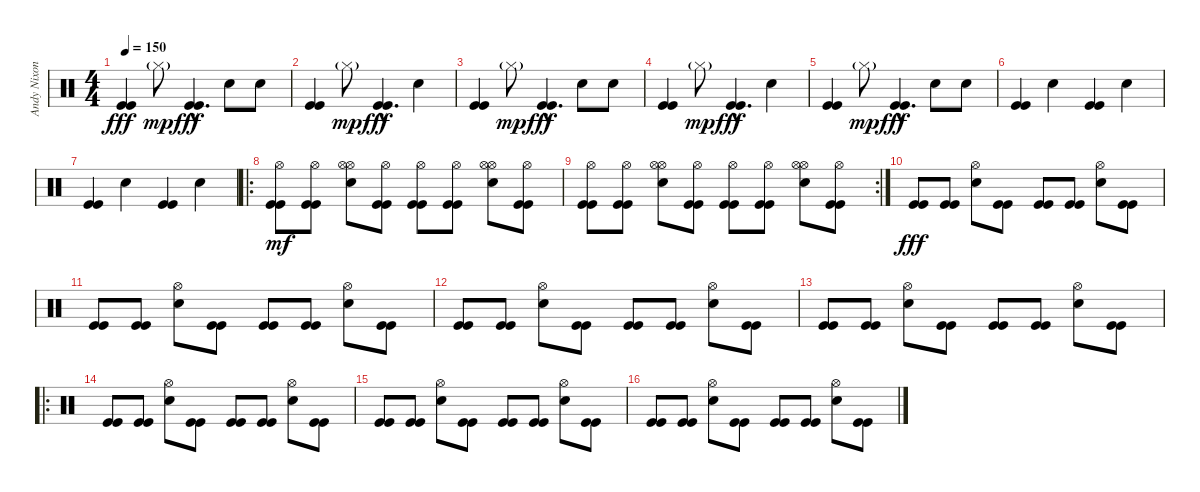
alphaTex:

\track ("Andy Nixon (drums)" "Andy Nixon") {instrument percussion}
\staff {score}
\articulation defaults
\ts (4 4)
\tempo 150
\clef neutral
\ks c
("Kick (hit)" "Kick (hit)").4{dy fff} "Hi-Hat (closed)"{g}.8{dy mp} ("Kick (hit)"{hac} "Kick (hit)"{hac}).4{d dy fff} "Snare (hit) 2".8 "Snare (hit) 2".8 |
("Kick (hit)" "Kick (hit)").4 "Hi-Hat (closed)"{g}.8{dy mp} ("Kick (hit)"{hac} "Kick (hit)"{hac}).4{d dy fff} "Snare (hit) 2".4 |
("Kick (hit)" "Kick (hit)").4 "Hi-Hat (closed)"{g}.8{dy mp} ("Kick (hit)"{hac} "Kick (hit)"{hac}).4{d dy fff} "Snare (hit) 2".8 "Snare (hit) 2".8 |
("Kick (hit)" "Kick (hit)").4 "Hi-Hat (closed)"{g}.8{dy mp} ("Kick (hit)"{hac} "Kick (hit)"{hac}).4{d dy fff} "Snare (hit) 2".4 |
("Kick (hit)" "Kick (hit)").4 "Hi-Hat (closed)"{g}.8{dy mp} ("Kick (hit)"{hac} "Kick (hit)"{hac}).4{d dy fff} "Snare (hit) 2".8 "Snare (hit) 2".8 |
("Kick (hit)" "Kick (hit)").4 "Snare (hit) 2".4 ("Kick (hit)" "Kick (hit)").4 "Snare (hit) 2".4 |
("Kick (hit)" "Kick (hit)").4 "Snare (hit) 2".4 ("Kick (hit)" "Kick (hit)").4 "Snare (hit) 2".4 |
\ro
("Kick (hit)" "Kick (hit)" "Hi-Hat (open)").8{dy mf} ("Kick (hit)" "Kick (hit)" "Hi-Hat (open)").8 ("Snare (hit) 2" "Hi-Hat (open)" "Hi-Hat (open)").8 ("Kick (hit)" "Kick (hit)" "Hi-Hat (open)").8 ("Kick (hit)" "Kick (hit)" "Hi-Hat (open)").8 ("Kick (hit)" "Kick (hit)" "Hi-Hat (open)").8 ("Snare (hit) 2" "Hi-Hat (open)" "Hi-Hat (open)").8 ("Kick (hit)" "Kick (hit)" "Hi-Hat (open)").8 |
\rc 2
("Kick (hit)" "Kick (hit)" "Hi-Hat (open)").8 ("Kick (hit)" "Kick (hit)" "Hi-Hat (open)").8 ("Snare (hit) 2" "Hi-Hat (open)" "Hi-Hat (open)").8 ("Kick (hit)" "Kick (hit)" "Hi-Hat (open)").8 ("Kick (hit)" "Kick (hit)" "Hi-Hat (open)").8 ("Kick (hit)" "Kick (hit)" "Hi-Hat (open)").8 ("Snare (hit) 2" "Hi-Hat (open)" "Hi-Hat (open)").8 ("Kick (hit)" "Kick (hit)" "Hi-Hat (open)").8 |
("Kick (hit)" "Kick (hit)").8{dy fff} ("Kick (hit)" "Kick (hit)").8 ("Snare (hit) 2" "Hi-Hat (open)").8 ("Kick (hit)" "Kick (hit)").8 ("Kick (hit)" "Kick (hit)").8 ("Kick (hit)" "Kick (hit)").8 ("Snare (hit) 2" "Hi-Hat (open)").8 ("Kick (hit)" "Kick (hit)").8 |
("Kick (hit)" "Kick (hit)").8 ("Kick (hit)" "Kick (hit)").8 ("Snare (hit) 2" "Hi-Hat (open)").8 ("Kick (hit)" "Kick (hit)").8 ("Kick (hit)" "Kick (hit)").8 ("Kick (hit)" "Kick (hit)").8 ("Snare (hit) 2" "Hi-Hat (open)").8 ("Kick (hit)" "Kick (hit)").8 |
("Kick (hit)" "Kick (hit)").8 ("Kick (hit)" "Kick (hit)").8 ("Snare (hit) 2" "Hi-Hat (open)").8 ("Kick (hit)" "Kick (hit)").8 ("Kick (hit)" "Kick (hit)").8 ("Kick (hit)" "Kick (hit)").8 ("Snare (hit) 2" "Hi-Hat (open)").8 ("Kick (hit)" "Kick (hit)").8 |
("Kick (hit)" "Kick (hit)").8 ("Kick (hit)" "Kick (hit)").8 ("Snare (hit) 2" "Hi-Hat (open)").8 ("Kick (hit)" "Kick (hit)").8 ("Kick (hit)" "Kick (hit)").8 ("Kick (hit)" "Kick (hit)").8 ("Snare (hit) 2" "Hi-Hat (open)").8 ("Kick (hit)" "Kick (hit)").8 |
\ro
("Kick (hit)" "Kick (hit)").8 ("Kick (hit)" "Kick (hit)").8 ("Snare (hit) 2" "Hi-Hat (open)").8 ("Kick (hit)" "Kick (hit)").8 ("Kick (hit)" "Kick (hit)").8 ("Kick (hit)" "Kick (hit)").8 ("Snare (hit) 2" "Hi-Hat (open)").8 ("Kick (hit)" "Kick (hit)").8 |
("Kick (hit)" "Kick (hit)").8 ("Kick (hit)" "Kick (hit)").8 ("Snare (hit) 2" "Hi-Hat (open)").8 ("Kick (hit)" "Kick (hit)").8 ("Kick (hit)" "Kick (hit)").8 ("Kick (hit)" "Kick (hit)").8 ("Snare (hit) 2" "Hi-Hat (open)").8 ("Kick (hit)" "Kick (hit)").8 |
("Kick (hit)" "Kick (hit)").8 ("Kick (hit)" "Kick (hit)").8 ("Snare (hit) 2" "Hi-Hat (open)").8 ("Kick (hit)" "Kick (hit)").8 ("Kick (hit)" "Kick (hit)").8 ("Kick (hit)" "Kick (hit)").8 ("Snare (hit) 2" "Hi-Hat (open)").8 ("Kick (hit)" "Kick (hit)").8
